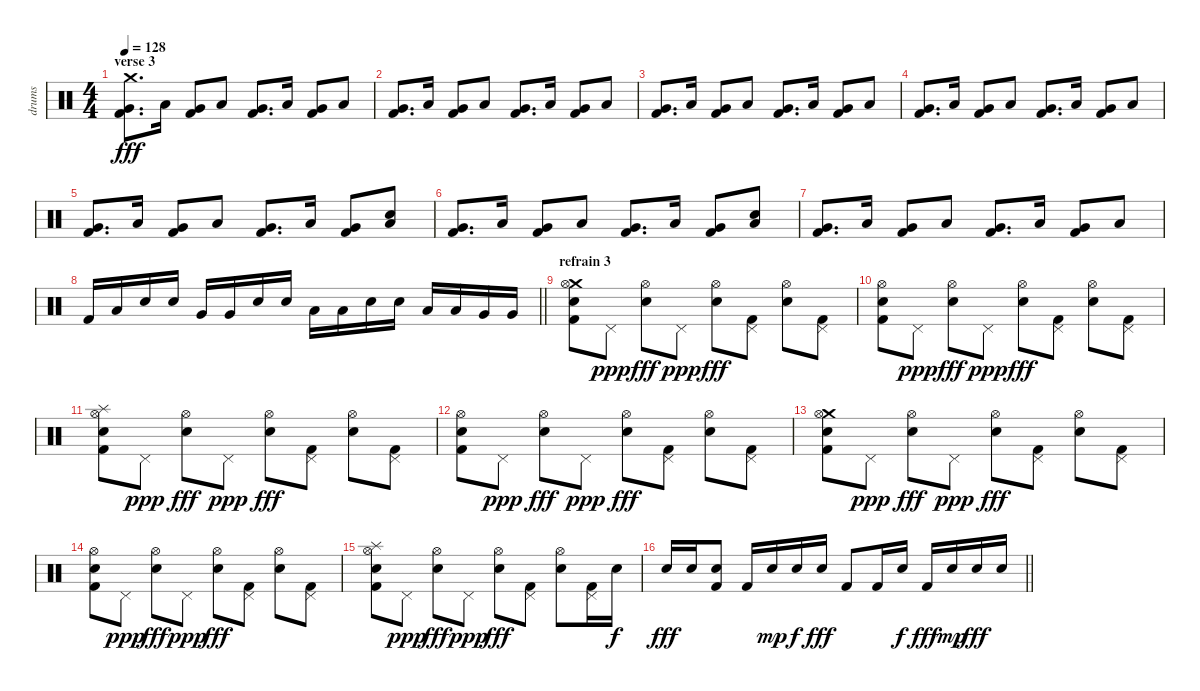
\track ("drums" "drums") {instrument percussion}
\staff {score}
\articulation defaults
\ts (4 4)
\section ("" "verse 3")
\tempo 128
\clef neutral
\ks c
("Crash medium (hit)" "Very Low Tom (hit)" "Kick (hit) 2").8{d dy fff} "Low Tom (hit)".16 ("Very Low Tom (hit)" "Kick (hit) 2").8 "Low Tom (hit)".8 ("Very Low Tom (hit)" "Kick (hit) 2").8{d} "Low Tom (hit)".16 ("Very Low Tom (hit)" "Kick (hit) 2").8 "Low Tom (hit)".8 |
("Very Low Tom (hit)" "Kick (hit) 2").8{d} "Low Tom (hit)".16 ("Very Low Tom (hit)" "Kick (hit) 2").8 "Low Tom (hit)".8 ("Very Low Tom (hit)" "Kick (hit) 2").8{d} "Low Tom (hit)".16 ("Very Low Tom (hit)" "Kick (hit) 2").8 "Low Tom (hit)".8 |
("Very Low Tom (hit)" "Kick (hit) 2").8{d} "Low Tom (hit)".16 ("Very Low Tom (hit)" "Kick (hit) 2").8 "Low Tom (hit)".8 ("Very Low Tom (hit)" "Kick (hit) 2").8{d} "Low Tom (hit)".16 ("Very Low Tom (hit)" "Kick (hit) 2").8 "Low Tom (hit)".8 |
("Very Low Tom (hit)" "Kick (hit) 2").8{d} "Low Tom (hit)".16 ("Very Low Tom (hit)" "Kick (hit) 2").8 "Low Tom (hit)".8 ("Very Low Tom (hit)" "Kick (hit) 2").8{d} "Low Tom (hit)".16 ("Very Low Tom (hit)" "Kick (hit) 2").8 "Low Tom (hit)".8 |
("Very Low Tom (hit)" "Kick (hit) 2").8{d} "Low Tom (hit)".16 ("Very Low Tom (hit)" "Kick (hit) 2").8 "Low Tom (hit)".8 ("Very Low Tom (hit)" "Kick (hit) 2").8{d} "Low Tom (hit)".16 ("Very Low Tom (hit)" "Kick (hit) 2").8 ("Low Tom (hit)" "Electric Snare (hit)").8 |
("Very Low Tom (hit)" "Kick (hit) 2").8{d} "Low Tom (hit)".16 ("Very Low Tom (hit)" "Kick (hit) 2").8 "Low Tom (hit)".8 ("Very Low Tom (hit)" "Kick (hit) 2").8{d} "Low Tom (hit)".16 ("Very Low Tom (hit)" "Kick (hit) 2").8 ("Low Tom (hit)" "Electric Snare (hit)").8 |
("Very Low Tom (hit)" "Kick (hit) 2").8{d} "Low Tom (hit)".16 ("Very Low Tom (hit)" "Kick (hit) 2").8 "Low Tom (hit)".8 ("Very Low Tom (hit)" "Kick (hit) 2").8{d} "Low Tom (hit)".16 ("Very Low Tom (hit)" "Kick (hit) 2").8 "Low Tom (hit)".8 |
\barLineRight lightlight "Kick (hit) 2".16 "Low Tom (hit)".16 "Electric Snare (hit)".16 "Electric Snare (hit)".16 "Very Low Tom (hit)".16 "Very Low Tom (hit)".16 "Electric Snare (hit)".16 "Electric Snare (hit)".16 "Low Tom (hit)".16 "Low Tom (hit)".16 "Electric Snare (hit)".16 "Electric Snare (hit)".16 "Low Tom (hit)".16 "Low Tom (hit)".16 "Very Low Tom (hit)".16 "Very Low Tom (hit)".16
|
\section ("" "refrain 3")
("Crash medium (hit)" "Hi-Hat (open)" "Electric Snare (hit)" "Kick (hit) 2").8 "Pedal Hi-Hat (hit)".8{dy ppp} ("Hi-Hat (open)" "Electric Snare (hit)").8{dy fff} "Pedal Hi-Hat (hit)".8{dy ppp} ("Hi-Hat (open)" "Electric Snare (hit)").8{dy fff} ("Pedal Hi-Hat (hit)" "Kick (hit) 2").8 ("Hi-Hat (open)" "Electric Snare (hit)").8 ("Pedal Hi-Hat (hit)" "Kick (hit) 2").8 |
("Hi-Hat (open)" "Electric Snare (hit)" "Kick (hit) 2").8 "Pedal Hi-Hat (hit)".8{dy ppp} ("Hi-Hat (open)" "Electric Snare (hit)").8{dy fff} "Pedal Hi-Hat (hit)".8{dy ppp} ("Hi-Hat (open)" "Electric Snare (hit)").8{dy fff} ("Pedal Hi-Hat (hit)" "Kick (hit) 2").8 ("Hi-Hat (open)" "Electric Snare (hit)").8 ("Pedal Hi-Hat (hit)" "Kick (hit) 2").8 |
("Splash (hit)" "Hi-Hat (open)" "Electric Snare (hit)" "Kick (hit) 2").8 "Pedal Hi-Hat (hit)".8{dy ppp} ("Hi-Hat (open)" "Electric Snare (hit)").8{dy fff} "Pedal Hi-Hat (hit)".8{dy ppp} ("Hi-Hat (open)" "Electric Snare (hit)").8{dy fff} ("Pedal Hi-Hat (hit)" "Kick (hit) 2").8 ("Hi-Hat (open)" "Electric Snare (hit)").8 ("Pedal Hi-Hat (hit)" "Kick (hit) 2").8 |
("Hi-Hat (open)" "Electric Snare (hit)" "Kick (hit) 2").8 "Pedal Hi-Hat (hit)".8{dy ppp} ("Hi-Hat (open)" "Electric Snare (hit)").8{dy fff} "Pedal Hi-Hat (hit)".8{dy ppp} ("Hi-Hat (open)" "Electric Snare (hit)").8{dy fff} ("Pedal Hi-Hat (hit)" "Kick (hit) 2").8 ("Hi-Hat (open)" "Electric Snare (hit)").8 ("Pedal Hi-Hat (hit)" "Kick (hit) 2").8 |
("Crash medium (hit)" "Hi-Hat (open)" "Electric Snare (hit)" "Kick (hit) 2").8 "Pedal Hi-Hat (hit)".8{dy ppp} ("Hi-Hat (open)" "Electric Snare (hit)").8{dy fff} "Pedal Hi-Hat (hit)".8{dy ppp} ("Hi-Hat (open)" "Electric Snare (hit)").8{dy fff} ("Pedal Hi-Hat (hit)" "Kick (hit) 2").8 ("Hi-Hat (open)" "Electric Snare (hit)").8 ("Pedal Hi-Hat (hit)" "Kick (hit) 2").8 |
("Hi-Hat (open)" "Electric Snare (hit)" "Kick (hit) 2").8 "Pedal Hi-Hat (hit)".8{dy ppp} ("Hi-Hat (open)" "Electric Snare (hit)").8{dy fff} "Pedal Hi-Hat (hit)".8{dy ppp} ("Hi-Hat (open)" "Electric Snare (hit)").8{dy fff} ("Pedal Hi-Hat (hit)" "Kick (hit) 2").8 ("Hi-Hat (open)" "Electric Snare (hit)").8 ("Pedal Hi-Hat (hit)" "Kick (hit) 2").8 |
("Splash (hit)" "Hi-Hat (open)" "Electric Snare (hit)" "Kick (hit) 2").8 "Pedal Hi-Hat (hit)".8{dy ppp} ("Hi-Hat (open)" "Electric Snare (hit)").8{dy fff} "Pedal Hi-Hat (hit)".8{dy ppp} ("Hi-Hat (open)" "Electric Snare (hit)").8{dy fff} ("Pedal Hi-Hat (hit)" "Kick (hit) 2").8 ("Hi-Hat (open)" "Electric Snare (hit)").8 ("Pedal Hi-Hat (hit)" "Kick (hit) 2").16 "Electric Snare (hit)".16{dy f} |
\barLineRight lightlight "Electric Snare (hit)".16{dy fff} "Electric Snare (hit)".16
("Electric Snare (hit)" "Kick (hit) 2").8 "Kick (hit) 2".16 "Electric Snare (hit)".16{dy mp} "Electric Snare (hit)".16{dy f} "Electric Snare (hit)".16{dy fff} "Kick (hit) 2".8 "Kick (hit) 2".16 "Electric Snare (hit)".16{dy f} "Kick (hit) 2".16{dy fff} "Electric Snare (hit)".16{dy mp} "Electric Snare (hit)".16{dy fff} "Electric Snare (hit)".16
